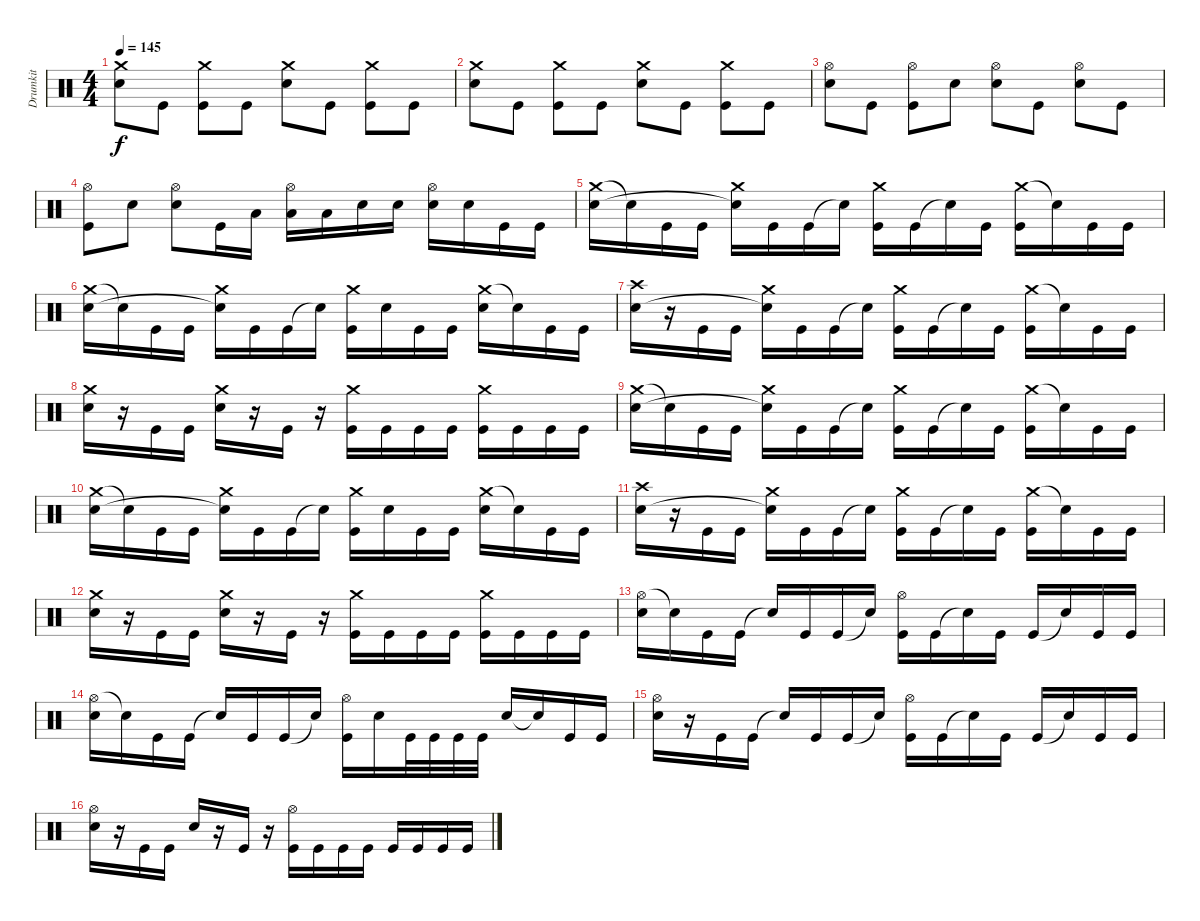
\track ("Drumkit" "Drumkit") {instrument percussion}
\staff {score}
\articulation defaults
\ts (4 4)
\tempo 145
\clef neutral
\ks c
("Crash medium (hit)" "Electric Snare (hit)").8{dy f} "Kick (hit)".8 ("Crash medium (hit)" "Kick (hit)").8 "Kick (hit)".8 ("Crash medium (hit)" "Electric Snare (hit)").8 "Kick (hit)".8 ("Crash medium (hit)" "Kick (hit)").8 "Kick (hit)".8 |
("Crash medium (hit)" "Electric Snare (hit)").8 "Kick (hit)".8 ("Crash medium (hit)" "Kick (hit)").8 "Kick (hit)".8 ("Crash medium (hit)" "Electric Snare (hit)").8 "Kick (hit)".8 ("Crash medium (hit)" "Kick (hit)").8 "Kick (hit)".8 |
("Hi-Hat (open)" "Electric Snare (hit)").8 "Kick (hit)".8 ("Hi-Hat (open)" "Kick (hit)").8 "Electric Snare (hit)".8 ("Hi-Hat (open)" "Electric Snare (hit)").8 "Kick (hit)".8 ("Hi-Hat (open)" "Electric Snare (hit)").8 "Kick (hit)".8 |
("Hi-Hat (open)" "Kick (hit)").8 "Electric Snare (hit)".8 ("Hi-Hat (open)" "Electric Snare (hit)").8 "Kick (hit)".16 "Low Tom (hit)".16 ("Hi-Hat (open)" "Low Tom (hit)").16 "Low Tom (hit)".16 "Electric Snare (hit)".16 "Electric Snare (hit)".16 ("Hi-Hat (open)" "Electric Snare (hit)").16 "Electric Snare (hit)".16 "Kick (hit)".16 "Kick (hit)".16 |
("Crash medium (hit)" "Electric Snare (hit)").16 "Snare (hit)"{t}.16 "Kick (hit)".16 "Kick (hit)".16 ("Crash medium (hit)" "Snare (hit)"{t}).16 "Kick (hit)".16 "Kick (hit)".16 "Snare (hit)"{t}.16 ("Crash medium (hit)" "Kick (hit)").16 "Kick (hit)".16 "Snare (hit)"{t}.16 "Kick (hit)".16 ("Crash medium (hit)" "Kick (hit)").16 "Snare (hit)"{t}.16 "Kick (hit)".16 "Kick (hit)".16 |
("Crash medium (hit)" "Electric Snare (hit)").16 "Snare (hit)"{t}.16 "Kick (hit)".16 "Kick (hit)".16 ("Crash medium (hit)" "Snare (hit)"{t}).16 "Kick (hit)".16 "Kick (hit)".16 "Snare (hit)"{t}.16 ("Crash medium (hit)" "Kick (hit)").16 "Electric Snare (hit)".16 "Kick (hit)".16 "Kick (hit)".16 ("Crash medium (hit)" "Electric Snare (hit)").16 "Snare (hit)"{t}.16 "Kick (hit)".16 "Kick (hit)".16 |
("Crash high (hit)" "Electric Snare (hit)").16 r.16 "Kick (hit)".16 "Kick (hit)".16 ("Crash medium (hit)" "Snare (hit)"{t}).16 "Kick (hit)".16 "Kick (hit)".16 "Snare (hit)"{t}.16 ("Crash medium (hit)" "Kick (hit)").16 "Kick (hit)".16 "Snare (hit)"{t}.16 "Kick (hit)".16 ("Crash medium (hit)" "Kick (hit)").16 "Snare (hit)"{t}.16 "Kick (hit)".16 "Kick (hit)".16 |
("Crash medium (hit)" "Electric Snare (hit)").16 r.16 "Kick (hit)".16 "Kick (hit)".16 ("Crash medium (hit)" "Electric Snare (hit)").16 r.16 "Kick (hit)".16 r.16 ("Crash medium (hit)" "Kick (hit)").16 "Kick (hit)".16 "Kick (hit)".16 "Kick (hit)".16 ("Crash medium (hit)" "Kick (hit)").16 "Kick (hit)".16 "Kick (hit)".16 "Kick (hit)".16 |
("Crash medium (hit)" "Electric Snare (hit)").16 "Snare (hit)"{t}.16 "Kick (hit)".16 "Kick (hit)".16 ("Crash medium (hit)" "Snare (hit)"{t}).16 "Kick (hit)".16 "Kick (hit)".16 "Snare (hit)"{t}.16 ("Crash medium (hit)" "Kick (hit)").16 "Kick (hit)".16 "Snare (hit)"{t}.16 "Kick (hit)".16 ("Crash medium (hit)" "Kick (hit)").16 "Snare (hit)"{t}.16 "Kick (hit)".16 "Kick (hit)".16 |
("Crash medium (hit)" "Electric Snare (hit)").16 "Snare (hit)"{t}.16 "Kick (hit)".16 "Kick (hit)".16 ("Crash medium (hit)" "Snare (hit)"{t}).16 "Kick (hit)".16 "Kick (hit)".16 "Snare (hit)"{t}.16 ("Crash medium (hit)" "Kick (hit)").16 "Electric Snare (hit)".16 "Kick (hit)".16 "Kick (hit)".16 ("Crash medium (hit)" "Electric Snare (hit)").16 "Snare (hit)"{t}.16 "Kick (hit)".16 "Kick (hit)".16 |
("Crash high (hit)" "Electric Snare (hit)").16 r.16 "Kick (hit)".16 "Kick (hit)".16 ("Crash medium (hit)" "Snare (hit)"{t}).16 "Kick (hit)".16 "Kick (hit)".16 "Snare (hit)"{t}.16 ("Crash medium (hit)" "Kick (hit)").16 "Kick (hit)".16 "Snare (hit)"{t}.16 "Kick (hit)".16 ("Crash medium (hit)" "Kick (hit)").16 "Snare (hit)"{t}.16 "Kick (hit)".16 "Kick (hit)".16 |
("Crash medium (hit)" "Electric Snare (hit)").16 r.16 "Kick (hit)".16 "Kick (hit)".16 ("Crash medium (hit)" "Electric Snare (hit)").16 r.16 "Kick (hit)".16 r.16 ("Crash medium (hit)" "Kick (hit)").16 "Kick (hit)".16 "Kick (hit)".16 "Kick (hit)".16 ("Crash medium (hit)" "Kick (hit)").16 "Kick (hit)".16 "Kick (hit)".16 "Kick (hit)".16 |
("Hi-Hat (open)" "Electric Snare (hit)").16 "Snare (hit)"{t}.16 "Kick (hit)".16 "Kick (hit)".16 "Snare (hit)"{t}.16 "Kick (hit)".16 "Kick (hit)".16 "Snare (hit)"{t}.16 ("Hi-Hat (open)" "Kick (hit)").16 "Kick (hit)".16 "Snare (hit)"{t}.16 "Kick (hit)".16 "Kick (hit)".16 "Snare (hit)"{t}.16 "Kick (hit)".16 "Kick (hit)".16 |
("Hi-Hat (open)" "Electric Snare (hit)").16 "Snare (hit)"{t}.16 "Kick (hit)".16 "Kick (hit)".16 "Snare (hit)"{t}.16 "Kick (hit)".16 "Kick (hit)".16 "Snare (hit)"{t}.16 ("Hi-Hat (open)" "Kick (hit)").16 "Electric Snare (hit)".16 "Kick (hit)".32 "Kick (hit)".32 "Kick (hit)".32 "Kick (hit)".32 "Electric Snare (hit)".16 "Snare (hit)"{t}.16 "Kick (hit)".16 "Kick (hit)".16 |
("Hi-Hat (open)" "Electric Snare (hit)").16 r.16 "Kick (hit)".16 "Kick (hit)".16 "Snare (hit)"{t}.16 "Kick (hit)".16 "Kick (hit)".16 "Snare (hit)"{t}.16 ("Hi-Hat (open)" "Kick (hit)").16 "Kick (hit)".16 "Snare (hit)"{t}.16 "Kick (hit)".16 "Kick (hit)".16 "Snare (hit)"{t}.16 "Kick (hit)".16 "Kick (hit)".16 |
("Hi-Hat (open)" "Electric Snare (hit)").16 r.16 "Kick (hit)".16 "Kick (hit)".16 "Electric Snare (hit)".16 r.16 "Kick (hit)".16 r.16 ("Hi-Hat (open)" "Kick (hit)").16 "Kick (hit)".16 "Kick (hit)".16 "Kick (hit)".16 "Kick (hit)".16 "Kick (hit)".16 "Kick (hit)".16 "Kick (hit)".16
